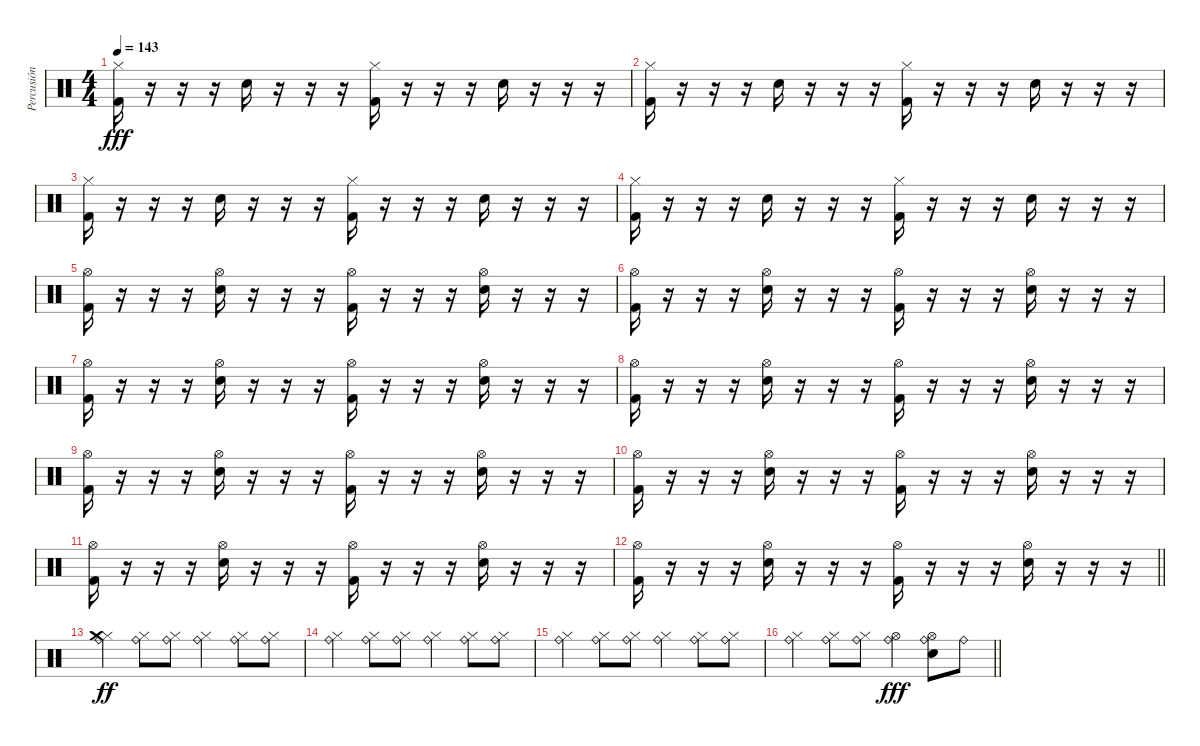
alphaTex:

\track ("Percusión" "Percusión") {instrument percussion}
\staff {score}
\articulation defaults
\ts (4 4)
\tempo 143
\clef neutral
\ks c
("Kick (hit) 2" "Hi-Hat (closed)").16{dy fff} r.16 r.16 r.16 "Snare (hit) 2".16 r.16 r.16 r.16 ("Kick (hit) 2" "Hi-Hat (closed)").16 r.16 r.16 r.16 "Snare (hit) 2".16 r.16 r.16 r.16 |
("Kick (hit) 2" "Hi-Hat (closed)").16 r.16 r.16 r.16 "Snare (hit) 2".16 r.16 r.16 r.16 ("Kick (hit) 2" "Hi-Hat (closed)").16 r.16 r.16 r.16 "Snare (hit) 2".16 r.16 r.16 r.16 |
("Kick (hit) 2" "Hi-Hat (closed)").16 r.16 r.16 r.16 "Snare (hit) 2".16 r.16 r.16 r.16 ("Kick (hit) 2" "Hi-Hat (closed)").16 r.16 r.16 r.16 "Snare (hit) 2".16 r.16 r.16 r.16 |
("Kick (hit) 2" "Hi-Hat (closed)").16 r.16 r.16 r.16 "Snare (hit) 2".16 r.16 r.16 r.16 ("Kick (hit) 2" "Hi-Hat (closed)").16 r.16 r.16 r.16 "Snare (hit) 2".16 r.16 r.16 r.16 |
("Kick (hit) 2" "Hi-Hat (open)").16 r.16 r.16 r.16 ("Snare (hit) 2" "Hi-Hat (open)").16 r.16 r.16 r.16 ("Kick (hit) 2" "Hi-Hat (open)").16 r.16 r.16 r.16 ("Snare (hit) 2" "Hi-Hat (open)").16 r.16 r.16 r.16 |
("Kick (hit) 2" "Hi-Hat (open)").16 r.16 r.16 r.16 ("Snare (hit) 2" "Hi-Hat (open)").16 r.16 r.16 r.16 ("Kick (hit) 2" "Hi-Hat (open)").16 r.16 r.16 r.16 ("Snare (hit) 2" "Hi-Hat (open)").16 r.16 r.16 r.16 |
("Kick (hit) 2" "Hi-Hat (open)").16 r.16 r.16 r.16 ("Snare (hit) 2" "Hi-Hat (open)").16 r.16 r.16 r.16 ("Kick (hit) 2" "Hi-Hat (open)").16 r.16 r.16 r.16 ("Snare (hit) 2" "Hi-Hat (open)").16 r.16 r.16 r.16 |
("Kick (hit) 2" "Hi-Hat (open)").16 r.16 r.16 r.16 ("Snare (hit) 2" "Hi-Hat (open)").16 r.16 r.16 r.16 ("Kick (hit) 2" "Hi-Hat (open)").16 r.16 r.16 r.16 ("Snare (hit) 2" "Hi-Hat (open)").16 r.16 r.16 r.16 |
("Kick (hit) 2" "Hi-Hat (open)").16 r.16 r.16 r.16 ("Snare (hit) 2" "Hi-Hat (open)").16 r.16 r.16 r.16 ("Kick (hit) 2" "Hi-Hat (open)").16 r.16 r.16 r.16 ("Snare (hit) 2" "Hi-Hat (open)").16 r.16 r.16 r.16 |
("Kick (hit) 2" "Hi-Hat (open)").16 r.16 r.16 r.16 ("Snare (hit) 2" "Hi-Hat (open)").16 r.16 r.16 r.16 ("Kick (hit) 2" "Hi-Hat (open)").16 r.16 r.16 r.16 ("Snare (hit) 2" "Hi-Hat (open)").16 r.16 r.16 r.16 |
("Kick (hit) 2" "Hi-Hat (open)").16 r.16 r.16 r.16 ("Snare (hit) 2" "Hi-Hat (open)").16 r.16 r.16 r.16 ("Kick (hit) 2" "Hi-Hat (open)").16 r.16 r.16 r.16 ("Snare (hit) 2" "Hi-Hat (open)").16 r.16 r.16 r.16 |
\barLineRight lightlight
("Kick (hit) 2" "Hi-Hat (open)").16 r.16 r.16 r.16 ("Snare (hit) 2" "Hi-Hat (open)").16 r.16 r.16 r.16 ("Kick (hit) 2" "Hi-Hat (open)").16 r.16 r.16 r.16 ("Snare (hit) 2" "Hi-Hat (open)").16 r.16 r.16 r.16 |
("Ride (bell)" "Hi-Hat (closed)" "Crash medium (hit)").4{dy ff} ("Ride (bell)" "Hi-Hat (closed)").8 ("Ride (bell)" "Hi-Hat (closed)").8 ("Ride (bell)" "Hi-Hat (closed)").4 ("Ride (bell)" "Hi-Hat (closed)").8 ("Ride (bell)" "Hi-Hat (closed)").8 |
("Ride (bell)" "Hi-Hat (closed)").4 ("Ride (bell)" "Hi-Hat (closed)").8 ("Ride (bell)" "Hi-Hat (closed)").8 ("Ride (bell)" "Hi-Hat (closed)").4 ("Ride (bell)" "Hi-Hat (closed)").8 ("Ride (bell)" "Hi-Hat (closed)").8 |
("Ride (bell)" "Hi-Hat (closed)").4 ("Ride (bell)" "Hi-Hat (closed)").8 ("Ride (bell)" "Hi-Hat (closed)").8 ("Ride (bell)" "Hi-Hat (closed)").4 ("Ride (bell)" "Hi-Hat (closed)").8 ("Ride (bell)" "Hi-Hat (closed)").8 |
\barLineRight lightlight
("Ride (bell)" "Hi-Hat (closed)").4 ("Ride (bell)" "Hi-Hat (closed)").8 ("Ride (bell)" "Hi-Hat (closed)").8 ("Ride (bell)" "Hi-Hat (open)").4{dy fff} ("Ride (bell)" "Hi-Hat (open)" "Snare (hit) 2").8 "Ride (bell)".8
